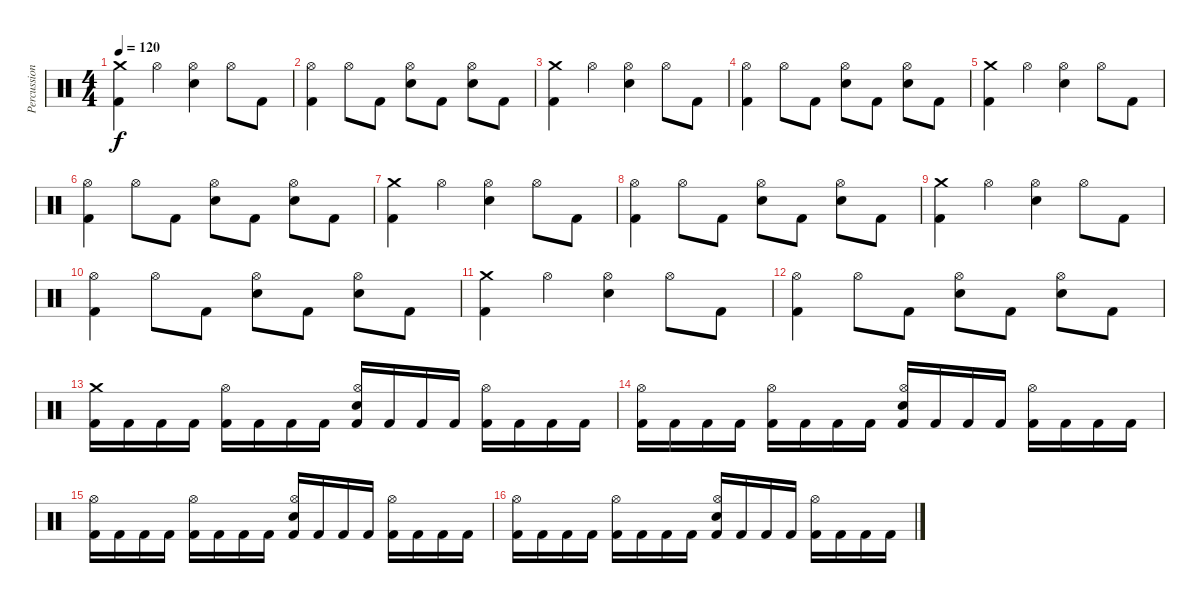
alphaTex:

\track ("Percussions" "Percussion") {instrument percussion}
\staff {score}
\articulation defaults
\ts (4 4)
\tempo 120
\clef neutral
\ks c
("Crash medium (hit)" "Kick (hit) 2").4{dy f} "Hi-Hat (open)".4 ("Hi-Hat (open)" "Electric Snare (hit)").4 "Hi-Hat (open)".8 "Kick (hit) 2".8 |
("Hi-Hat (open)" "Kick (hit) 2").4 "Hi-Hat (open)".8 "Kick (hit) 2".8 ("Hi-Hat (open)" "Electric Snare (hit)").8 "Kick (hit) 2".8 ("Hi-Hat (open)" "Electric Snare (hit)").8 "Kick (hit) 2".8 |
("Crash medium (hit)" "Kick (hit) 2").4 "Hi-Hat (open)".4 ("Hi-Hat (open)" "Electric Snare (hit)").4 "Hi-Hat (open)".8 "Kick (hit) 2".8 |
("Hi-Hat (open)" "Kick (hit) 2").4 "Hi-Hat (open)".8 "Kick (hit) 2".8 ("Hi-Hat (open)" "Electric Snare (hit)").8 "Kick (hit) 2".8 ("Hi-Hat (open)" "Electric Snare (hit)").8 "Kick (hit) 2".8 |
("Crash medium (hit)" "Kick (hit) 2").4 "Hi-Hat (open)".4 ("Hi-Hat (open)" "Electric Snare (hit)").4 "Hi-Hat (open)".8 "Kick (hit) 2".8 |
("Hi-Hat (open)" "Kick (hit) 2").4 "Hi-Hat (open)".8 "Kick (hit) 2".8 ("Hi-Hat (open)" "Electric Snare (hit)").8 "Kick (hit) 2".8 ("Hi-Hat (open)" "Electric Snare (hit)").8 "Kick (hit) 2".8 |
("Crash medium (hit)" "Kick (hit) 2").4 "Hi-Hat (open)".4 ("Hi-Hat (open)" "Electric Snare (hit)").4 "Hi-Hat (open)".8 "Kick (hit) 2".8 |
("Hi-Hat (open)" "Kick (hit) 2").4 "Hi-Hat (open)".8 "Kick (hit) 2".8 ("Hi-Hat (open)" "Electric Snare (hit)").8 "Kick (hit) 2".8 ("Hi-Hat (open)" "Electric Snare (hit)").8 "Kick (hit) 2".8 |
("Crash medium (hit)" "Kick (hit) 2").4 "Hi-Hat (open)".4 ("Hi-Hat (open)" "Electric Snare (hit)").4 "Hi-Hat (open)".8 "Kick (hit) 2".8 |
("Hi-Hat (open)" "Kick (hit) 2").4 "Hi-Hat (open)".8 "Kick (hit) 2".8 ("Hi-Hat (open)" "Electric Snare (hit)").8 "Kick (hit) 2".8 ("Hi-Hat (open)" "Electric Snare (hit)").8 "Kick (hit) 2".8 |
("Crash medium (hit)" "Kick (hit) 2").4 "Hi-Hat (open)".4 ("Hi-Hat (open)" "Electric Snare (hit)").4 "Hi-Hat (open)".8 "Kick (hit) 2".8 |
("Hi-Hat (open)" "Kick (hit) 2").4 "Hi-Hat (open)".8 "Kick (hit) 2".8 ("Hi-Hat (open)" "Electric Snare (hit)").8 "Kick (hit) 2".8 ("Hi-Hat (open)" "Electric Snare (hit)").8 "Kick (hit) 2".8 |
("Crash medium (hit)" "Kick (hit) 2").16 "Kick (hit) 2".16 "Kick (hit) 2".16 "Kick (hit) 2".16 ("Hi-Hat (open)" "Kick (hit) 2").16 "Kick (hit) 2".16 "Kick (hit) 2".16 "Kick (hit) 2".16 ("Hi-Hat (open)" "Electric Snare (hit)" "Kick (hit) 2").16 "Kick (hit) 2".16 "Kick (hit) 2".16 "Kick (hit) 2".16 ("Hi-Hat (open)" "Kick (hit) 2").16 "Kick (hit) 2".16 "Kick (hit) 2".16 "Kick (hit) 2".16 |
("Hi-Hat (open)" "Kick (hit) 2").16 "Kick (hit) 2".16 "Kick (hit) 2".16 "Kick (hit) 2".16 ("Hi-Hat (open)" "Kick (hit) 2").16 "Kick (hit) 2".16 "Kick (hit) 2".16 "Kick (hit) 2".16 ("Hi-Hat (open)" "Electric Snare (hit)" "Kick (hit) 2").16 "Kick (hit) 2".16 "Kick (hit) 2".16 "Kick (hit) 2".16 ("Hi-Hat (open)" "Kick (hit) 2").16 "Kick (hit) 2".16 "Kick (hit) 2".16 "Kick (hit) 2".16 |
("Hi-Hat (open)" "Kick (hit) 2").16 "Kick (hit) 2".16 "Kick (hit) 2".16 "Kick (hit) 2".16 ("Hi-Hat (open)" "Kick (hit) 2").16 "Kick (hit) 2".16 "Kick (hit) 2".16 "Kick (hit) 2".16 ("Hi-Hat (open)" "Electric Snare (hit)" "Kick (hit) 2").16 "Kick (hit) 2".16 "Kick (hit) 2".16 "Kick (hit) 2".16 ("Hi-Hat (open)" "Kick (hit) 2").16 "Kick (hit) 2".16 "Kick (hit) 2".16 "Kick (hit) 2".16 |
("Hi-Hat (open)" "Kick (hit) 2").16 "Kick (hit) 2".16 "Kick (hit) 2".16 "Kick (hit) 2".16 ("Hi-Hat (open)" "Kick (hit) 2").16 "Kick (hit) 2".16 "Kick (hit) 2".16 "Kick (hit) 2".16 ("Hi-Hat (open)" "Electric Snare (hit)" "Kick (hit) 2").16 "Kick (hit) 2".16 "Kick (hit) 2".16 "Kick (hit) 2".16 ("Hi-Hat (open)" "Kick (hit) 2").16 "Kick (hit) 2".16 "Kick (hit) 2".16 "Kick (hit) 2".16
